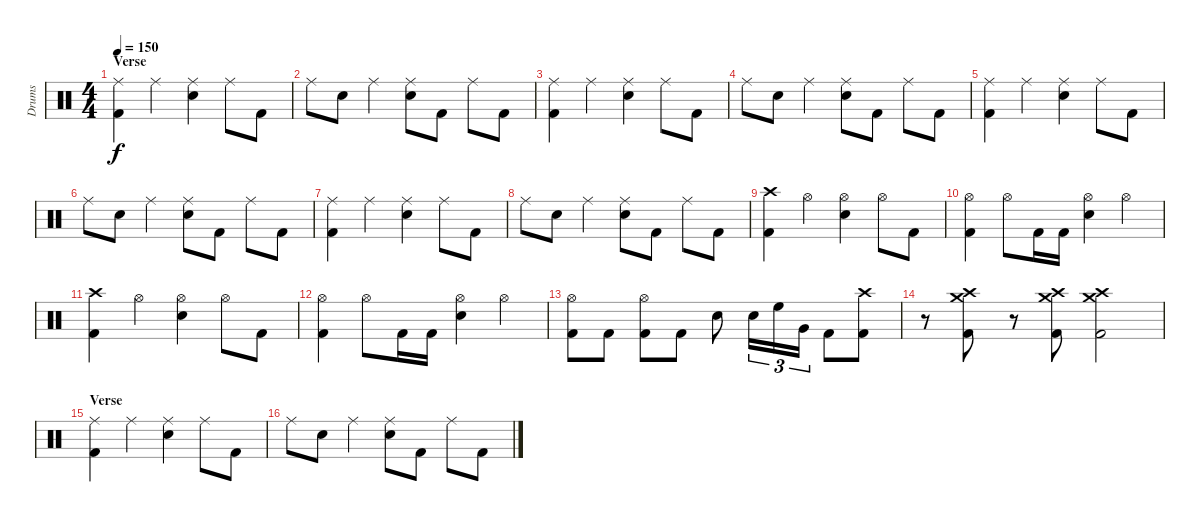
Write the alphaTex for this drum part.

\track ("Drums" "Drums") {instrument percussion}
\staff {score}
\articulation defaults
\ts (4 4)
\section ("" "Verse")
\tempo 150
\clef neutral
\ks c
("Ride (middle)" "Kick (hit) 2").4{dy f} "Ride (middle)".4 ("Ride (middle)" "Electric Snare (hit)").4 "Ride (middle)".8 "Kick (hit) 2".8 |
"Ride (middle)".8 "Electric Snare (hit)".8 "Ride (middle)".4 ("Ride (middle)" "Electric Snare (hit)").8 "Kick (hit) 2".8 "Ride (middle)".8 "Kick (hit) 2".8 |
("Ride (middle)" "Kick (hit) 2").4 "Ride (middle)".4 ("Ride (middle)" "Electric Snare (hit)").4 "Ride (middle)".8 "Kick (hit) 2".8 |
"Ride (middle)".8 "Electric Snare (hit)".8 "Ride (middle)".4 ("Ride (middle)" "Electric Snare (hit)").8 "Kick (hit) 2".8 "Ride (middle)".8 "Kick (hit) 2".8 |
("Ride (middle)" "Kick (hit) 2").4 "Ride (middle)".4 ("Ride (middle)" "Electric Snare (hit)").4 "Ride (middle)".8 "Kick (hit) 2".8 |
"Ride (middle)".8 "Electric Snare (hit)".8 "Ride (middle)".4 ("Ride (middle)" "Electric Snare (hit)").8 "Kick (hit) 2".8 "Ride (middle)".8 "Kick (hit) 2".8 |
("Ride (middle)" "Kick (hit) 2").4 "Ride (middle)".4 ("Ride (middle)" "Electric Snare (hit)").4 "Ride (middle)".8 "Kick (hit) 2".8 |
"Ride (middle)".8 "Electric Snare (hit)".8 "Ride (middle)".4 ("Ride (middle)" "Electric Snare (hit)").8 "Kick (hit) 2".8 "Ride (middle)".8 "Kick (hit) 2".8 |
("Crash high (hit)" "Kick (hit) 2").4 "Hi-Hat (open)".4 ("Hi-Hat (open)" "Electric Snare (hit)").4 "Hi-Hat (open)".8 "Kick (hit) 2".8 |
("Hi-Hat (open)" "Kick (hit) 2").4 "Hi-Hat (open)".8 "Kick (hit) 2".16 "Kick (hit) 2".16 ("Hi-Hat (open)" "Electric Snare (hit)").4 "Hi-Hat (open)".4 |
("Crash high (hit)" "Kick (hit) 2").4 "Hi-Hat (open)".4 ("Hi-Hat (open)" "Electric Snare (hit)").4 "Hi-Hat (open)".8 "Kick (hit) 2".8 |
("Hi-Hat (open)" "Kick (hit) 2").4 "Hi-Hat (open)".8 "Kick (hit) 2".16 "Kick (hit) 2".16 ("Hi-Hat (open)" "Electric Snare (hit)").4 "Hi-Hat (open)".4 |
\section ("" "")
("Hi-Hat (open)" "Kick (hit) 2").8 "Kick (hit) 2".8 ("Hi-Hat (open)" "Kick (hit) 2").8 "Kick (hit) 2".8 "Electric Snare (hit)".8 "Electric Snare (hit)".16{tu (3 2)} "High Floor Tom (hit)".16{tu (3 2)} "Very Low Tom (hit)".16{tu (3 2)} "Kick (hit) 2".8 ("Crash high (hit)" "Kick (hit) 2").8 |
r.8 ("Crash high (hit)" "Crash medium (hit)" "Kick (hit) 2").8 r.8 ("Crash high (hit)" "Crash medium (hit)" "Kick (hit) 2").8 ("Crash high (hit)" "Crash medium (hit)" "Kick (hit) 2").2 |
\section ("" "Verse")
("Ride (middle)" "Kick (hit) 2").4 "Ride (middle)".4 ("Ride (middle)" "Electric Snare (hit)").4 "Ride (middle)".8 "Kick (hit) 2".8 |
"Ride (middle)".8 "Electric Snare (hit)".8 "Ride (middle)".4 ("Ride (middle)" "Electric Snare (hit)").8 "Kick (hit) 2".8 "Ride (middle)".8 "Kick (hit) 2".8
